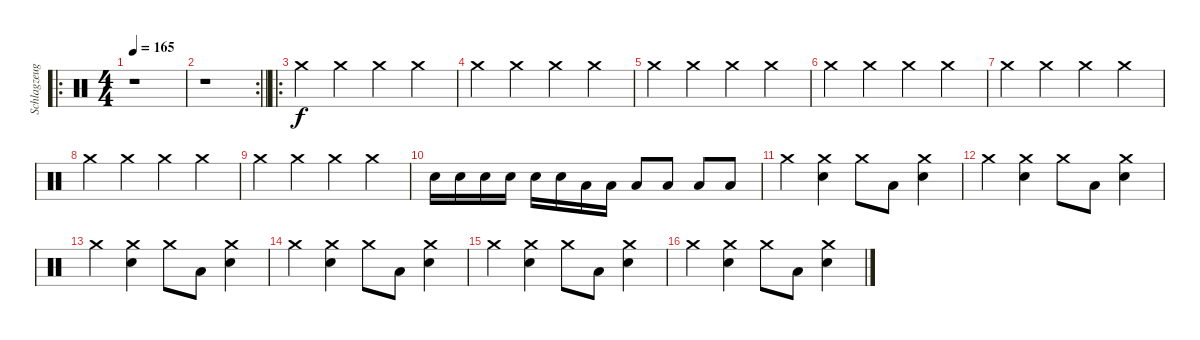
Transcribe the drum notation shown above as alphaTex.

\track ("Schlagzeug" "Schlagzeug") {instrument percussion}
\staff {score}
\articulation defaults
\ro
\ts (4 4)
\tempo 165
\clef neutral
\ks c
r.1{dy f} |
\rc 2
\barLineRight lightlight
r.1 |
\ro "Crash medium (hit)".4 "Crash medium (hit)".4 "Crash medium (hit)".4 "Crash medium (hit)".4
|
"Crash medium (hit)".4 "Crash medium (hit)".4 "Crash medium (hit)".4 "Crash medium (hit)".4 |
"Crash medium (hit)".4 "Crash medium (hit)".4 "Crash medium (hit)".4 "Crash medium (hit)".4 |
"Crash medium (hit)".4 "Crash medium (hit)".4 "Crash medium (hit)".4 "Crash medium (hit)".4 |
"Crash medium (hit)".4 "Crash medium (hit)".4 "Crash medium (hit)".4 "Crash medium (hit)".4 |
"Crash medium (hit)".4 "Crash medium (hit)".4 "Crash medium (hit)".4 "Crash medium (hit)".4 |
"Crash medium (hit)".4 "Crash medium (hit)".4 "Crash medium (hit)".4 "Crash medium (hit)".4 |
"Electric Snare (hit)".16 "Electric Snare (hit)".16 "Electric Snare (hit)".16 "Electric Snare (hit)".16 "Electric Snare (hit)".16 "Electric Snare (hit)".16 "Low Floor Tom (hit)".16 "Low Floor Tom (hit)".16 "Low Floor Tom (hit)".8 "Low Floor Tom (hit)".8 "Low Floor Tom (hit)".8 "Low Floor Tom (hit)".8 |
"Crash medium (hit)".4 ("Electric Snare (hit)" "Crash medium (hit)").4 "Crash medium (hit)".8 "Low Floor Tom (hit)".8 ("Electric Snare (hit)" "Crash medium (hit)").4 |
"Crash medium (hit)".4 ("Electric Snare (hit)" "Crash medium (hit)").4 "Crash medium (hit)".8 "Low Floor Tom (hit)".8 ("Electric Snare (hit)" "Crash medium (hit)").4 |
"Crash medium (hit)".4 ("Electric Snare (hit)" "Crash medium (hit)").4 "Crash medium (hit)".8 "Low Floor Tom (hit)".8 ("Electric Snare (hit)" "Crash medium (hit)").4 |
"Crash medium (hit)".4 ("Electric Snare (hit)" "Crash medium (hit)").4 "Crash medium (hit)".8 "Low Floor Tom (hit)".8 ("Electric Snare (hit)" "Crash medium (hit)").4 |
"Crash medium (hit)".4 ("Electric Snare (hit)" "Crash medium (hit)").4 "Crash medium (hit)".8 "Low Floor Tom (hit)".8 ("Electric Snare (hit)" "Crash medium (hit)").4 |
"Crash medium (hit)".4 ("Electric Snare (hit)" "Crash medium (hit)").4 "Crash medium (hit)".8 "Low Floor Tom (hit)".8 ("Electric Snare (hit)" "Crash medium (hit)").4
